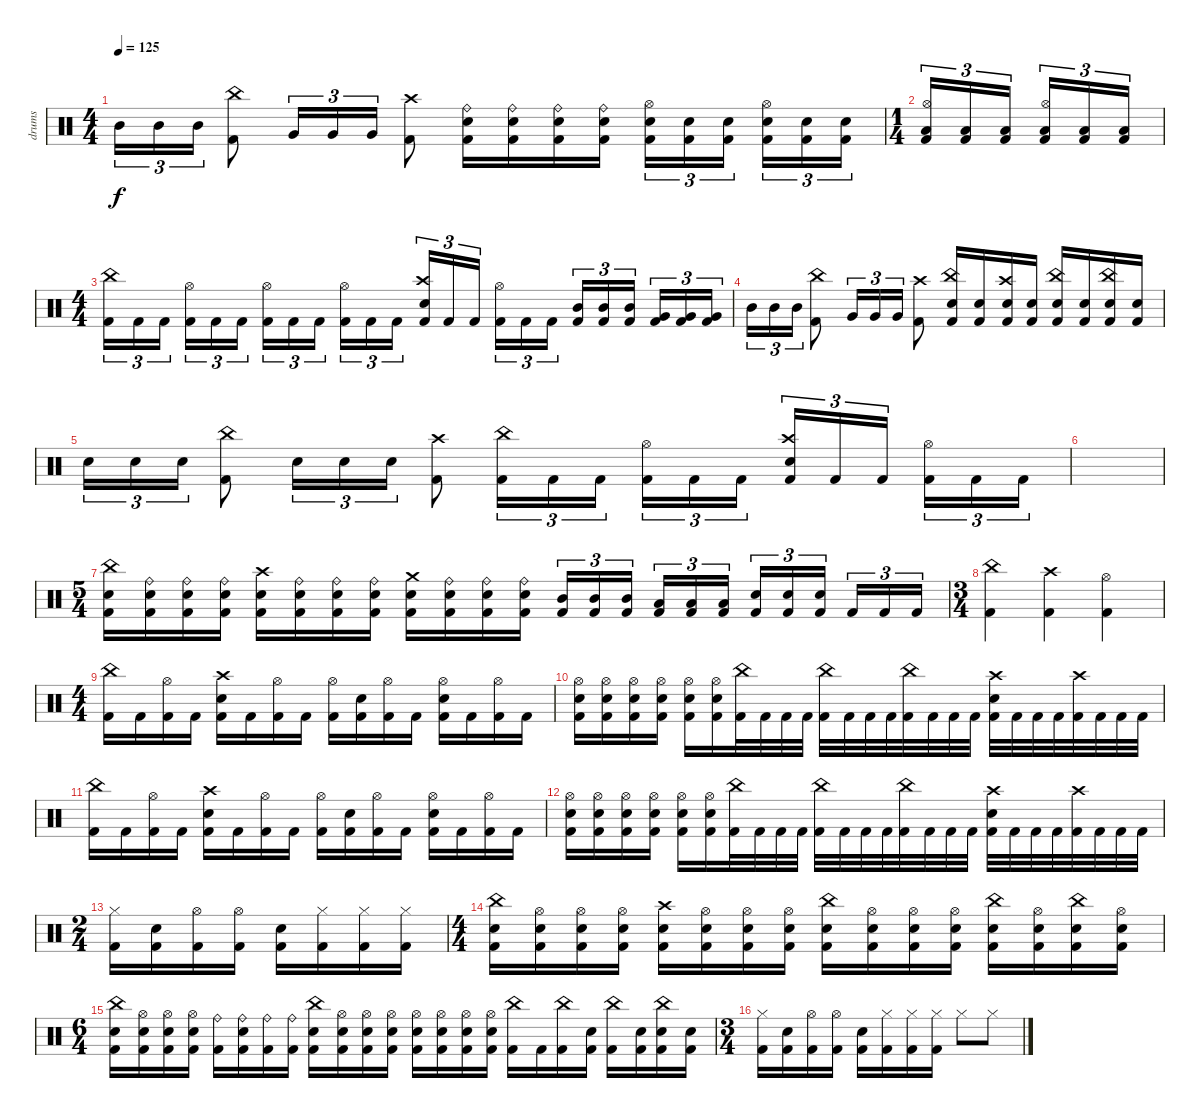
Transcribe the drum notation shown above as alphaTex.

\track (" drums" " drums") {mute instrument percussion}
\staff {score}
\articulation defaults
\ts (4 4)
\tempo 125
\clef neutral
\ks c "Mid Tom (hit)".16{tu (3 2) dy f} "Mid Tom (hit)".16{tu (3 2)} "Mid Tom (hit)".16{tu (3 2)}
("Kick (hit) 2" "China (hit)").8 "Very Low Tom (hit)".16{tu (3 2)} "Very Low Tom (hit)".16{tu (3 2)} "Very Low Tom (hit)".16{tu (3 2)} ("Kick (hit) 2" "Crash high (hit)").8 ("Electric Snare (hit)" "Ride (bell)" "Kick (hit) 2").16 ("Electric Snare (hit)" "Ride (bell)" "Kick (hit) 2").16 ("Electric Snare (hit)" "Ride (bell)" "Kick (hit) 2").16 ("Electric Snare (hit)" "Ride (bell)" "Kick (hit) 2").16 ("Electric Snare (hit)" "Kick (hit) 2" "Hi-Hat (open)").16{tu (3 2)} ("Electric Snare (hit)" "Kick (hit) 2").16{tu (3 2)} ("Electric Snare (hit)" "Kick (hit) 2").16{tu (3 2) beam splitsecondary} ("Electric Snare (hit)" "Kick (hit) 2" "Hi-Hat (open)").16{tu (3 2)} ("Electric Snare (hit)" "Kick (hit) 2").16{tu (3 2)} ("Electric Snare (hit)" "Kick (hit) 2").16{tu (3 2)} |
\ts (1 4)
("Low Tom (hit)" "Kick (hit) 2" "Hi-Hat (open)").16{tu (3 2)} ("Low Tom (hit)" "Kick (hit) 2").16{tu (3 2)} ("Low Tom (hit)" "Kick (hit) 2").16{tu (3 2) beam splitsecondary} ("Low Floor Tom (hit)" "Kick (hit) 2" "Hi-Hat (open)").16{tu (3 2)} ("Low Floor Tom (hit)" "Kick (hit) 2").16{tu (3 2)} ("Low Floor Tom (hit)" "Kick (hit) 2").16{tu (3 2)} |
\ts (4 4)
("Kick (hit) 2" "China (hit)").16{tu (3 2)} "Kick (hit) 2".16{tu (3 2)} "Kick (hit) 2".16{tu (3 2) beam splitsecondary} ("Kick (hit) 2" "Hi-Hat (open)").16{tu (3 2)} "Kick (hit) 2".16{tu (3 2)} "Kick (hit) 2".16{tu (3 2)} ("Kick (hit) 2" "Hi-Hat (open)").16{tu (3 2)} "Kick (hit) 2".16{tu (3 2)} "Kick (hit) 2".16{tu (3 2) beam splitsecondary} ("Kick (hit) 2" "Hi-Hat (open)").16{tu (3 2)} "Kick (hit) 2".16{tu (3 2)} "Kick (hit) 2".16{tu (3 2)} ("Kick (hit) 2" "Electric Snare (hit)" "Crash high (hit)").16{tu (3 2)} "Kick (hit) 2".16{tu (3 2)} "Kick (hit) 2".16{tu (3 2) beam splitsecondary} ("Kick (hit) 2" "Hi-Hat (open)").16{tu (3 2)} "Kick (hit) 2".16{tu (3 2)} "Kick (hit) 2".16{tu (3 2)} ("Kick (hit) 2" "Mid Tom (hit)").16{tu (3 2)} ("Kick (hit) 2" "Mid Tom (hit)").16{tu (3 2)} ("Kick (hit) 2" "Mid Tom (hit)").16{tu (3 2) beam splitsecondary} ("Kick (hit) 2" "Very Low Tom (hit)").16{tu (3 2)} ("Kick (hit) 2" "Very Low Tom (hit)").16{tu (3 2)} ("Kick (hit) 2" "Very Low Tom (hit)").16{tu (3 2)} |
"Mid Tom (hit)".16{tu (3 2)} "Mid Tom (hit)".16{tu (3 2)} "Mid Tom (hit)".16{tu (3 2)} ("Kick (hit) 2" "China (hit)").8 "Very Low Tom (hit)".16{tu (3 2)} "Very Low Tom (hit)".16{tu (3 2)} "Very Low Tom (hit)".16{tu (3 2)} ("Kick (hit) 2" "Crash high (hit)").8 ("Kick (hit) 2" "Electric Snare (hit)" "China (hit)").16 ("Kick (hit) 2" "Electric Snare (hit)").16 ("Kick (hit) 2" "Electric Snare (hit)" "Crash high (hit)").16 ("Kick (hit) 2" "Electric Snare (hit)").16 ("Kick (hit) 2" "Electric Snare (hit)" "China (hit)").16 ("Kick (hit) 2" "Electric Snare (hit)").16 ("Kick (hit) 2" "Electric Snare (hit)" "China (hit)").16 ("Kick (hit) 2" "Electric Snare (hit)").16 |
"Electric Snare (hit)".16{tu (3 2)} "Electric Snare (hit)".16{tu (3 2)} "Electric Snare (hit)".16{tu (3 2)} ("Kick (hit) 2" "China (hit)").8 "Electric Snare (hit)".16{tu (3 2)} "Electric Snare (hit)".16{tu (3 2)} "Electric Snare (hit)".16{tu (3 2)} ("Kick (hit) 2" "Crash high (hit)").8 ("Kick (hit) 2" "China (hit)").16{tu (3 2)} "Kick (hit) 2".16{tu (3 2)} "Kick (hit) 2".16{tu (3 2) beam splitsecondary} ("Kick (hit) 2" "Hi-Hat (open)").16{tu (3 2)} "Kick (hit) 2".16{tu (3 2)} "Kick (hit) 2".16{tu (3 2)} ("Kick (hit) 2" "Electric Snare (hit)" "Crash high (hit)").16{tu (3 2)} "Kick (hit) 2".16{tu (3 2)} "Kick (hit) 2".16{tu (3 2) beam splitsecondary} ("Kick (hit) 2" "Hi-Hat (open)").16{tu (3 2)} "Kick (hit) 2".16{tu (3 2)} "Kick (hit) 2".16{tu (3 2)} |
|
\ts (5 4)
("Kick (hit) 2" "Electric Snare (hit)" "China (hit)").16 ("Kick (hit) 2" "Electric Snare (hit)" "Ride (bell)").16 ("Kick (hit) 2" "Electric Snare (hit)" "Ride (bell)").16 ("Kick (hit) 2" "Electric Snare (hit)" "Ride (bell)").16 ("Kick (hit) 2" "Electric Snare (hit)" "Crash high (hit)").16 ("Kick (hit) 2" "Electric Snare (hit)" "Ride (bell)").16 ("Kick (hit) 2" "Electric Snare (hit)" "Ride (bell)").16 ("Kick (hit) 2" "Electric Snare (hit)" "Ride (bell)").16 ("Kick (hit) 2" "Electric Snare (hit)" "Crash medium (hit)").16 ("Kick (hit) 2" "Electric Snare (hit)" "Ride (bell)").16 ("Kick (hit) 2" "Electric Snare (hit)" "Ride (bell)").16 ("Kick (hit) 2" "Electric Snare (hit)" "Ride (bell)").16 ("Kick (hit) 2" "Mid Tom (hit)").16{tu (3 2)} ("Kick (hit) 2" "Mid Tom (hit)").16{tu (3 2)} ("Kick (hit) 2" "Mid Tom (hit)").16{tu (3 2) beam splitsecondary} ("Kick (hit) 2" "Low Floor Tom (hit)").16{tu (3 2)} ("Kick (hit) 2" "Low Floor Tom (hit)").16{tu (3 2)} ("Kick (hit) 2" "Low Floor Tom (hit)").16{tu (3 2)} ("Kick (hit) 2" "Electric Snare (hit)").16{tu (3 2)} ("Kick (hit) 2" "Electric Snare (hit)").16{tu (3 2)} ("Kick (hit) 2" "Electric Snare (hit)").16{tu (3 2) beam splitsecondary} "Kick (hit) 2".16{tu (3 2)} "Kick (hit) 2".16{tu (3 2)} "Kick (hit) 2".16{tu (3 2)} |
\ts (3 4)
("Kick (hit) 2" "China (hit)").4 ("Kick (hit) 2" "Crash high (hit)").4 ("Kick (hit) 2" "Hi-Hat (open)").4 |
\ts (4 4)
("Kick (hit) 2" "China (hit)").16 "Kick (hit) 2".16 ("Kick (hit) 2" "Hi-Hat (open)").16 "Kick (hit) 2".16 ("Kick (hit) 2" "Crash high (hit)" "Electric Snare (hit)").16 "Kick (hit) 2".16 ("Kick (hit) 2" "Hi-Hat (open)").16 "Kick (hit) 2".16 ("Kick (hit) 2" "Hi-Hat (open)").16 ("Kick (hit) 2" "Electric Snare (hit)").16 ("Kick (hit) 2" "Hi-Hat (open)").16 "Kick (hit) 2".16 ("Kick (hit) 2" "Hi-Hat (open)" "Electric Snare (hit)").16 "Kick (hit) 2".16 ("Kick (hit) 2" "Hi-Hat (open)").16 "Kick (hit) 2".16 |
("Electric Snare (hit)" "Hi-Hat (open)" "Kick (hit) 2").16 ("Electric Snare (hit)" "Hi-Hat (open)" "Kick (hit) 2").16 ("Electric Snare (hit)" "Hi-Hat (open)" "Kick (hit) 2").16 ("Electric Snare (hit)" "Hi-Hat (open)" "Kick (hit) 2").16 ("Electric Snare (hit)" "Hi-Hat (open)" "Kick (hit) 2").16 ("Electric Snare (hit)" "Hi-Hat (open)" "Kick (hit) 2").16 ("Kick (hit) 2" "China (hit)").32 "Kick (hit) 2".32 "Kick (hit) 2".32 "Kick (hit) 2".32 ("Kick (hit) 2" "China (hit)").32 "Kick (hit) 2".32 "Kick (hit) 2".32 "Kick (hit) 2".32 ("Kick (hit) 2" "China (hit)").32 "Kick (hit) 2".32 "Kick (hit) 2".32 "Kick (hit) 2".32 ("Kick (hit) 2" "Crash high (hit)" "Electric Snare (hit)").32 "Kick (hit) 2".32 "Kick (hit) 2".32 "Kick (hit) 2".32 ("Kick (hit) 2" "Crash high (hit)").32 "Kick (hit) 2".32 "Kick (hit) 2".32 "Kick (hit) 2".32 |
("Kick (hit) 2" "China (hit)").16 "Kick (hit) 2".16 ("Kick (hit) 2" "Hi-Hat (open)").16 "Kick (hit) 2".16 ("Kick (hit) 2" "Crash high (hit)" "Electric Snare (hit)").16 "Kick (hit) 2".16 ("Kick (hit) 2" "Hi-Hat (open)").16 "Kick (hit) 2".16 ("Kick (hit) 2" "Hi-Hat (open)").16 ("Kick (hit) 2" "Electric Snare (hit)").16 ("Kick (hit) 2" "Hi-Hat (open)").16 "Kick (hit) 2".16 ("Kick (hit) 2" "Hi-Hat (open)" "Electric Snare (hit)").16 "Kick (hit) 2".16 ("Kick (hit) 2" "Hi-Hat (open)").16 "Kick (hit) 2".16 |
("Electric Snare (hit)" "Hi-Hat (open)" "Kick (hit) 2").16 ("Electric Snare (hit)" "Hi-Hat (open)" "Kick (hit) 2").16 ("Electric Snare (hit)" "Hi-Hat (open)" "Kick (hit) 2").16 ("Electric Snare (hit)" "Hi-Hat (open)" "Kick (hit) 2").16 ("Electric Snare (hit)" "Hi-Hat (open)" "Kick (hit) 2").16 ("Electric Snare (hit)" "Hi-Hat (open)" "Kick (hit) 2").16 ("Kick (hit) 2" "China (hit)").32 "Kick (hit) 2".32 "Kick (hit) 2".32 "Kick (hit) 2".32 ("Kick (hit) 2" "China (hit)").32 "Kick (hit) 2".32 "Kick (hit) 2".32 "Kick (hit) 2".32 ("Kick (hit) 2" "China (hit)").32 "Kick (hit) 2".32 "Kick (hit) 2".32 "Kick (hit) 2".32 ("Kick (hit) 2" "Crash high (hit)" "Electric Snare (hit)").32 "Kick (hit) 2".32 "Kick (hit) 2".32 "Kick (hit) 2".32 ("Kick (hit) 2" "Crash high (hit)").32 "Kick (hit) 2".32 "Kick (hit) 2".32 "Kick (hit) 2".32 |
\ts (2 4)
("Kick (hit) 2" "Hi-Hat (closed)").16 ("Kick (hit) 2" "Electric Snare (hit)").16 ("Kick (hit) 2" "Hi-Hat (open)").16 ("Kick (hit) 2" "Hi-Hat (open)").16 ("Kick (hit) 2" "Electric Snare (hit)").16 ("Kick (hit) 2" "Hi-Hat (closed)").16 ("Kick (hit) 2" "Hi-Hat (closed)").16 ("Kick (hit) 2" "Hi-Hat (closed)").16 |
\ts (4 4)
("Kick (hit) 2" "China (hit)" "Electric Snare (hit)").16 ("Kick (hit) 2" "Hi-Hat (open)" "Electric Snare (hit)").16 ("Kick (hit) 2" "Hi-Hat (open)" "Electric Snare (hit)").16 ("Kick (hit) 2" "Hi-Hat (open)" "Electric Snare (hit)").16 ("Kick (hit) 2" "Crash high (hit)" "Electric Snare (hit)").16 ("Kick (hit) 2" "Hi-Hat (open)" "Electric Snare (hit)").16 ("Kick (hit) 2" "Hi-Hat (open)" "Electric Snare (hit)").16 ("Kick (hit) 2" "Hi-Hat (open)" "Electric Snare (hit)").16 ("Kick (hit) 2" "China (hit)" "Electric Snare (hit)").16 ("Kick (hit) 2" "Hi-Hat (open)" "Electric Snare (hit)").16 ("Kick (hit) 2" "Hi-Hat (open)" "Electric Snare (hit)").16 ("Kick (hit) 2" "Hi-Hat (open)" "Electric Snare (hit)").16 ("Kick (hit) 2" "China (hit)" "Electric Snare (hit)").16 ("Kick (hit) 2" "Hi-Hat (open)" "Electric Snare (hit)").16 ("Kick (hit) 2" "China (hit)" "Electric Snare (hit)").16 ("Kick (hit) 2" "Hi-Hat (open)" "Electric Snare (hit)").16 |
\ts (6 4)
("Kick (hit) 2" "China (hit)" "Electric Snare (hit)").16 ("Kick (hit) 2" "Hi-Hat (open)" "Electric Snare (hit)").16 ("Kick (hit) 2" "Hi-Hat (open)" "Electric Snare (hit)").16 ("Kick (hit) 2" "Hi-Hat (open)" "Electric Snare (hit)").16 ("Kick (hit) 2" "Ride (bell)").16 ("Kick (hit) 2" "Ride (bell)" "Electric Snare (hit)").16 ("Kick (hit) 2" "Ride (bell)").16 ("Kick (hit) 2" "Ride (bell)").16 ("Kick (hit) 2" "China (hit)" "Electric Snare (hit)").16 ("Kick (hit) 2" "Hi-Hat (open)" "Electric Snare (hit)").16 ("Kick (hit) 2" "Hi-Hat (open)" "Electric Snare (hit)").16 ("Kick (hit) 2" "Hi-Hat (open)" "Electric Snare (hit)").16 ("Kick (hit) 2" "Hi-Hat (open)" "Electric Snare (hit)").16 ("Kick (hit) 2" "Hi-Hat (open)" "Electric Snare (hit)").16 ("Kick (hit) 2" "Electric Snare (hit)" "Hi-Hat (open)").16 ("Kick (hit) 2" "Electric Snare (hit)" "Hi-Hat (open)").16 ("Kick (hit) 2" "China (hit)").16 "Kick (hit) 2".16 ("Kick (hit) 2" "China (hit)").16 ("Kick (hit) 2" "Electric Snare (hit)").16 ("Kick (hit) 2" "China (hit)").16 ("Kick (hit) 2" "Electric Snare (hit)").16 ("Kick (hit) 2" "China (hit)" "Electric Snare (hit)").16 ("Kick (hit) 2" "Electric Snare (hit)").16 |
\ts (3 4)
("Kick (hit) 2" "Hi-Hat (closed)").16 ("Kick (hit) 2" "Electric Snare (hit)").16 ("Kick (hit) 2" "Hi-Hat (open)").16 ("Kick (hit) 2" "Hi-Hat (open)").16 ("Kick (hit) 2" "Electric Snare (hit)").16 ("Kick (hit) 2" "Hi-Hat (closed)").16 ("Kick (hit) 2" "Hi-Hat (closed)").16 ("Kick (hit) 2" "Hi-Hat (closed)").16 "Hi-Hat (closed)".8 "Hi-Hat (closed)".8
